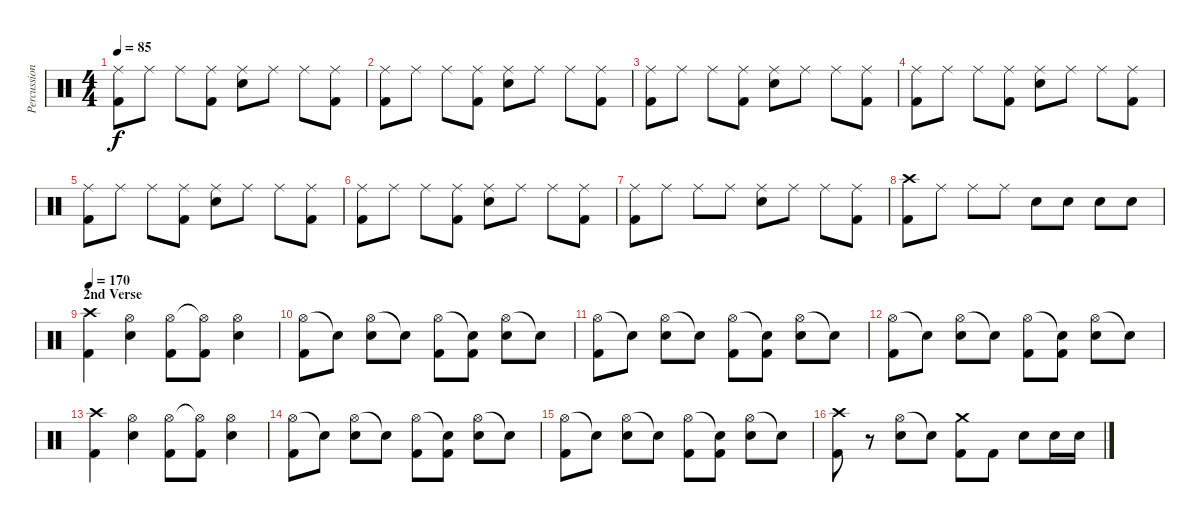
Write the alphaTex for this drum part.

\track ("Percussion" "Percussion") {instrument percussion}
\staff {score}
\articulation defaults
\ts (4 4)
\tempo 85
\clef neutral
\ks c
("Ride (middle)" "Kick (hit) 2").8{dy f} "Ride (middle)".8 "Ride (middle)".8 ("Ride (middle)" "Kick (hit) 2").8 ("Ride (middle)" "Electric Snare (hit)").8 "Ride (middle)".8 "Ride (middle)".8 ("Ride (middle)" "Kick (hit) 2").8 |
("Ride (middle)" "Kick (hit) 2").8 "Ride (middle)".8 "Ride (middle)".8 ("Ride (middle)" "Kick (hit) 2").8 ("Ride (middle)" "Electric Snare (hit)").8 "Ride (middle)".8 "Ride (middle)".8 ("Ride (middle)" "Kick (hit) 2").8 |
("Ride (middle)" "Kick (hit) 2").8 "Ride (middle)".8 "Ride (middle)".8 ("Ride (middle)" "Kick (hit) 2").8 ("Ride (middle)" "Electric Snare (hit)").8 "Ride (middle)".8 "Ride (middle)".8 ("Ride (middle)" "Kick (hit) 2").8 |
("Ride (middle)" "Kick (hit) 2").8 "Ride (middle)".8 "Ride (middle)".8 ("Ride (middle)" "Kick (hit) 2").8 ("Ride (middle)" "Electric Snare (hit)").8 "Ride (middle)".8 "Ride (middle)".8 ("Ride (middle)" "Kick (hit) 2").8 |
("Ride (middle)" "Kick (hit) 2").8 "Ride (middle)".8 "Ride (middle)".8 ("Ride (middle)" "Kick (hit) 2").8 ("Ride (middle)" "Electric Snare (hit)").8 "Ride (middle)".8 "Ride (middle)".8 ("Ride (middle)" "Kick (hit) 2").8 |
("Ride (middle)" "Kick (hit) 2").8 "Ride (middle)".8 "Ride (middle)".8 ("Ride (middle)" "Kick (hit) 2").8 ("Ride (middle)" "Electric Snare (hit)").8 "Ride (middle)".8 "Ride (middle)".8 ("Ride (middle)" "Kick (hit) 2").8 |
("Ride (middle)" "Kick (hit) 2").8 "Ride (middle)".8 "Ride (middle)".8 "Ride (middle)".8 ("Ride (middle)" "Electric Snare (hit)").8 "Ride (middle)".8 "Ride (middle)".8 ("Ride (middle)" "Kick (hit) 2").8 |
("Crash high (hit)" "Kick (hit) 2").8 "Ride (middle)".8 "Ride (middle)".8 "Ride (middle)".8 "Electric Snare (hit)".8 "Electric Snare (hit)".8 "Electric Snare (hit)".8 "Electric Snare (hit)".8 |
\section ("" "2nd Verse")
\tempo 170
("Crash high (hit)" "Kick (hit) 2").4 ("Hi-Hat (open)" "Electric Snare (hit)").4 ("Hi-Hat (open)" "Kick (hit) 2").8 ("Hi-Hat (open)"{t} "Kick (hit) 2").8 ("Hi-Hat (open)" "Electric Snare (hit)").4 |
("Hi-Hat (open)" "Kick (hit) 2").8 "Snare (hit)"{t}.8 ("Hi-Hat (open)" "Electric Snare (hit)").8 "Snare (hit)"{t}.8 ("Hi-Hat (open)" "Kick (hit) 2").8 ("Snare (hit)"{t} "Kick (hit) 2").8 ("Hi-Hat (open)" "Electric Snare (hit)").8 "Snare (hit)"{t}.8 |
("Hi-Hat (open)" "Kick (hit) 2").8 "Snare (hit)"{t}.8 ("Hi-Hat (open)" "Electric Snare (hit)").8 "Snare (hit)"{t}.8 ("Hi-Hat (open)" "Kick (hit) 2").8 ("Snare (hit)"{t} "Kick (hit) 2").8 ("Hi-Hat (open)" "Electric Snare (hit)").8 "Snare (hit)"{t}.8 |
("Hi-Hat (open)" "Kick (hit) 2").8 "Snare (hit)"{t}.8 ("Hi-Hat (open)" "Electric Snare (hit)").8 "Snare (hit)"{t}.8 ("Hi-Hat (open)" "Kick (hit) 2").8 ("Snare (hit)"{t} "Kick (hit) 2").8 ("Hi-Hat (open)" "Electric Snare (hit)").8 "Snare (hit)"{t}.8 |
("Crash high (hit)" "Kick (hit) 2").4 ("Hi-Hat (open)" "Electric Snare (hit)").4 ("Hi-Hat (open)" "Kick (hit) 2").8 ("Hi-Hat (open)"{t} "Kick (hit) 2").8 ("Hi-Hat (open)" "Electric Snare (hit)").4 |
("Hi-Hat (open)" "Kick (hit) 2").8 "Snare (hit)"{t}.8 ("Hi-Hat (open)" "Electric Snare (hit)").8 "Snare (hit)"{t}.8 ("Hi-Hat (open)" "Kick (hit) 2").8 ("Snare (hit)"{t} "Kick (hit) 2").8 ("Hi-Hat (open)" "Electric Snare (hit)").8 "Snare (hit)"{t}.8 |
("Hi-Hat (open)" "Kick (hit) 2").8 "Snare (hit)"{t}.8 ("Hi-Hat (open)" "Electric Snare (hit)").8 "Snare (hit)"{t}.8 ("Hi-Hat (open)" "Kick (hit) 2").8 ("Snare (hit)"{t} "Kick (hit) 2").8 ("Hi-Hat (open)" "Electric Snare (hit)").8 "Snare (hit)"{t}.8 |
("Crash high (hit)" "Kick (hit) 2").8 r.8 ("Hi-Hat (open)" "Electric Snare (hit)").8 "Snare (hit)"{t}.8 ("Crash medium (hit)" "Kick (hit) 2").8 "Kick (hit) 2".8 "Electric Snare (hit)".8 "Electric Snare (hit)".16 "Electric Snare (hit)".16
